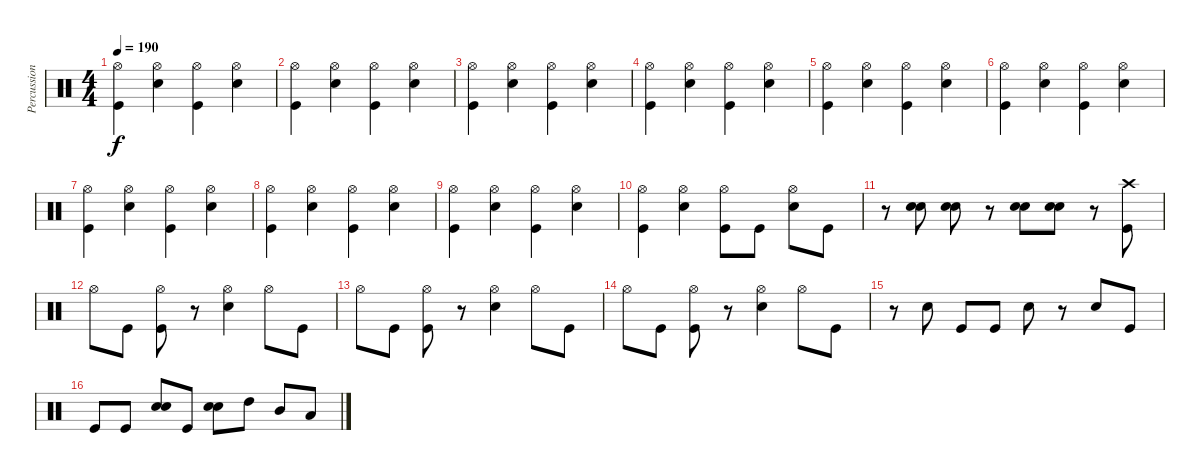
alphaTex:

\track ("Percussion" "Percussion") {mute instrument percussion}
\staff {score}
\articulation defaults
\ts (4 4)
\tempo 190
\clef neutral
\ks c
("Hi-Hat (open)" "Kick (hit)").4{dy f} ("Hi-Hat (open)" "Snare (hit) 2").4 ("Hi-Hat (open)" "Kick (hit)").4 ("Hi-Hat (open)" "Snare (hit) 2").4 |
("Hi-Hat (open)" "Kick (hit)").4 ("Hi-Hat (open)" "Snare (hit) 2").4 ("Hi-Hat (open)" "Kick (hit)").4 ("Hi-Hat (open)" "Snare (hit) 2").4 |
("Hi-Hat (open)" "Kick (hit)").4 ("Hi-Hat (open)" "Snare (hit) 2").4 ("Hi-Hat (open)" "Kick (hit)").4 ("Hi-Hat (open)" "Snare (hit) 2").4 |
("Hi-Hat (open)" "Kick (hit)").4 ("Hi-Hat (open)" "Snare (hit) 2").4 ("Hi-Hat (open)" "Kick (hit)").4 ("Hi-Hat (open)" "Snare (hit) 2").4 |
("Hi-Hat (open)" "Kick (hit)").4 ("Hi-Hat (open)" "Snare (hit) 2").4 ("Hi-Hat (open)" "Kick (hit)").4 ("Hi-Hat (open)" "Snare (hit) 2").4 |
("Hi-Hat (open)" "Kick (hit)").4 ("Hi-Hat (open)" "Snare (hit) 2").4 ("Hi-Hat (open)" "Kick (hit)").4 ("Hi-Hat (open)" "Snare (hit) 2").4 |
("Hi-Hat (open)" "Kick (hit)").4 ("Hi-Hat (open)" "Snare (hit) 2").4 ("Hi-Hat (open)" "Kick (hit)").4 ("Hi-Hat (open)" "Snare (hit) 2").4 |
("Hi-Hat (open)" "Kick (hit)").4 ("Hi-Hat (open)" "Snare (hit) 2").4 ("Hi-Hat (open)" "Kick (hit)").4 ("Hi-Hat (open)" "Snare (hit) 2").4 |
("Hi-Hat (open)" "Kick (hit)").4 ("Hi-Hat (open)" "Snare (hit) 2").4 ("Hi-Hat (open)" "Kick (hit)").4 ("Hi-Hat (open)" "Snare (hit) 2").4 |
("Hi-Hat (open)" "Kick (hit)").4 ("Hi-Hat (open)" "Snare (hit) 2").4 ("Hi-Hat (open)" "Kick (hit)").8 "Kick (hit)".8 ("Hi-Hat (open)" "Snare (hit) 2").8 "Kick (hit)".8 |
r.8 ("Snare (hit) 2" "Snare (hit) 2").8 ("Snare (hit) 2" "Snare (hit) 2").8 r.8 ("Snare (hit) 2" "Snare (hit) 2").8 ("Snare (hit) 2" "Snare (hit) 2").8 r.8 ("Crash high (hit)" "Kick (hit)").8 |
"Hi-Hat (open)".8 "Kick (hit)".8 ("Hi-Hat (open)" "Kick (hit)").8 r.8 ("Hi-Hat (open)" "Snare (hit) 2").4 "Hi-Hat (open)".8 "Kick (hit)".8 |
"Hi-Hat (open)".8 "Kick (hit)".8 ("Hi-Hat (open)" "Kick (hit)").8 r.8 ("Hi-Hat (open)" "Snare (hit) 2").4 "Hi-Hat (open)".8 "Kick (hit)".8 |
"Hi-Hat (open)".8 "Kick (hit)".8 ("Hi-Hat (open)" "Kick (hit)").8 r.8 ("Hi-Hat (open)" "Snare (hit) 2").4 "Hi-Hat (open)".8 "Kick (hit)".8 |
r.8 "Snare (hit) 2".8 "Kick (hit)".8 "Kick (hit)".8 "Snare (hit) 2".8 r.8 "Snare (hit) 2".8 "Kick (hit)".8 |
"Kick (hit)".8 "Kick (hit)".8 ("Snare (hit) 2" "Snare (hit) 2").8 "Kick (hit)".8 ("Snare (hit) 2" "Snare (hit) 2").8 "High Tom (hit)".8 "Mid Tom (hit)".8 "Low Tom (hit)".8
